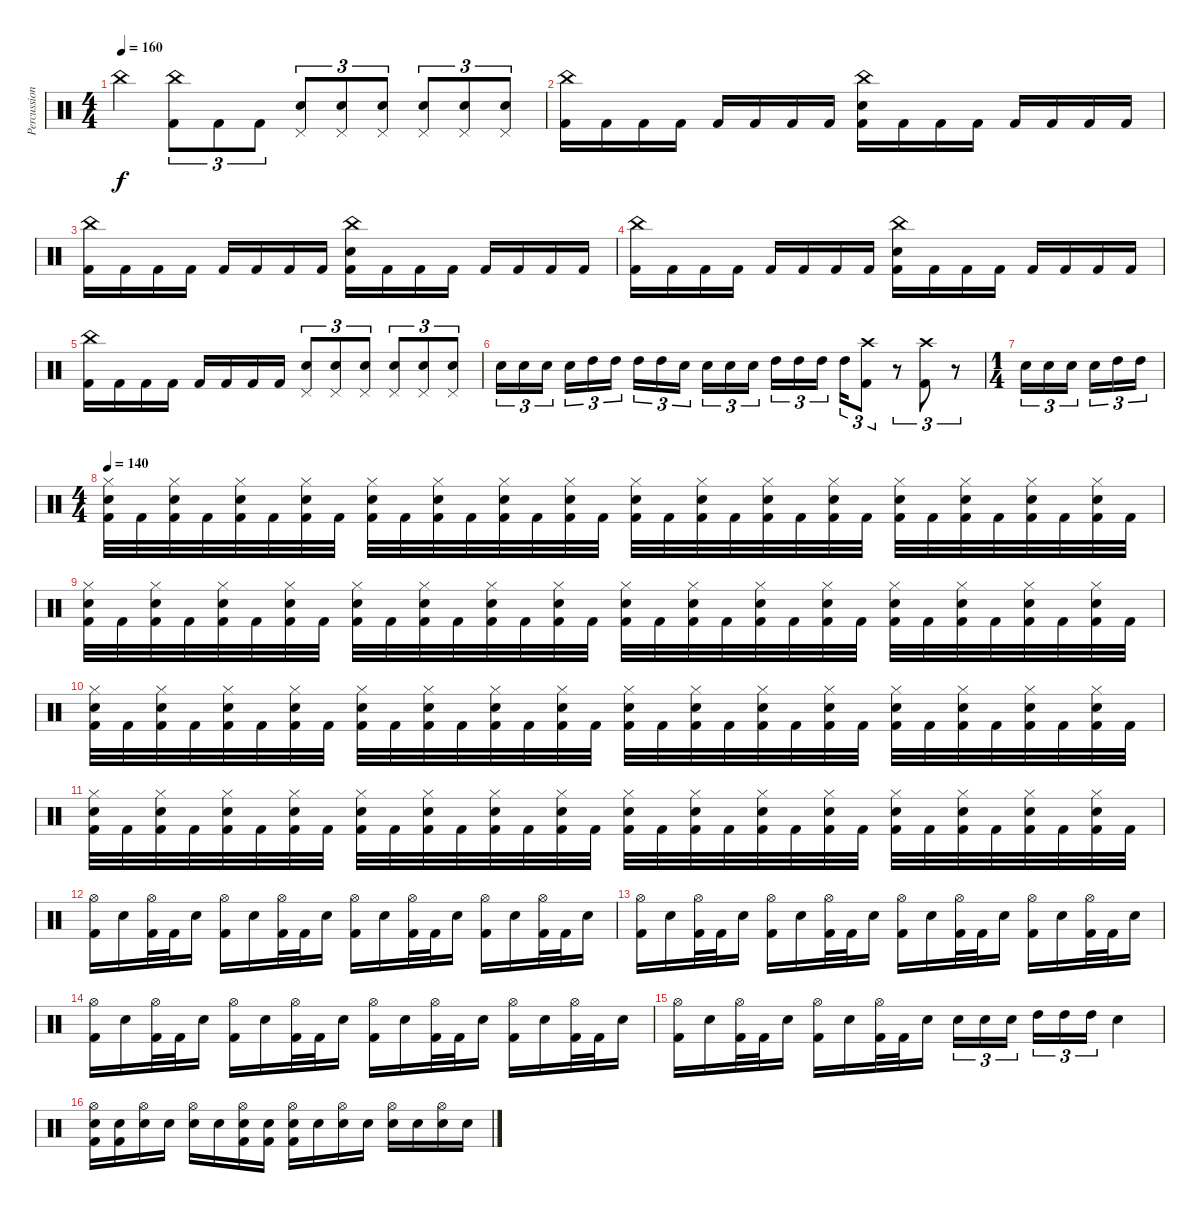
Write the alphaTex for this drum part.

\track ("Percussion" "Percussion") {instrument percussion}
\staff {score}
\articulation defaults
\ts (4 4)
\tempo 160
\clef neutral
\ks c "China (hit)".4{dy f}
("China (hit)" "Kick (hit) 2").8{tu (3 2)} "Kick (hit) 2".8{tu (3 2)} "Kick (hit) 2".8{tu (3 2)} ("Pedal Hi-Hat (hit)" "Snare (hit) 2").8{tu (3 2)} ("Pedal Hi-Hat (hit)" "Snare (hit) 2").8{tu (3 2)} ("Pedal Hi-Hat (hit)" "Snare (hit) 2").8{tu (3 2)} ("Pedal Hi-Hat (hit)" "Snare (hit) 2").8{tu (3 2)} ("Pedal Hi-Hat (hit)" "Snare (hit) 2").8{tu (3 2)} ("Pedal Hi-Hat (hit)" "Snare (hit) 2").8{tu (3 2)} |
("Kick (hit) 2" "China (hit)").16 "Kick (hit) 2".16 "Kick (hit) 2".16 "Kick (hit) 2".16 "Kick (hit) 2".16 "Kick (hit) 2".16 "Kick (hit) 2".16 "Kick (hit) 2".16 ("Kick (hit) 2" "Snare (hit) 2" "China (hit)").16 "Kick (hit) 2".16 "Kick (hit) 2".16 "Kick (hit) 2".16 "Kick (hit) 2".16 "Kick (hit) 2".16 "Kick (hit) 2".16 "Kick (hit) 2".16 |
("Kick (hit) 2" "China (hit)").16 "Kick (hit) 2".16 "Kick (hit) 2".16 "Kick (hit) 2".16 "Kick (hit) 2".16 "Kick (hit) 2".16 "Kick (hit) 2".16 "Kick (hit) 2".16 ("Kick (hit) 2" "Snare (hit) 2" "China (hit)").16 "Kick (hit) 2".16 "Kick (hit) 2".16 "Kick (hit) 2".16 "Kick (hit) 2".16 "Kick (hit) 2".16 "Kick (hit) 2".16 "Kick (hit) 2".16 |
("Kick (hit) 2" "China (hit)").16 "Kick (hit) 2".16 "Kick (hit) 2".16 "Kick (hit) 2".16 "Kick (hit) 2".16 "Kick (hit) 2".16 "Kick (hit) 2".16 "Kick (hit) 2".16 ("Kick (hit) 2" "Snare (hit) 2" "China (hit)").16 "Kick (hit) 2".16 "Kick (hit) 2".16 "Kick (hit) 2".16 "Kick (hit) 2".16 "Kick (hit) 2".16 "Kick (hit) 2".16 "Kick (hit) 2".16 |
("Kick (hit) 2" "China (hit)").16 "Kick (hit) 2".16 "Kick (hit) 2".16 "Kick (hit) 2".16 "Kick (hit) 2".16 "Kick (hit) 2".16 "Kick (hit) 2".16 "Kick (hit) 2".16 ("Pedal Hi-Hat (hit)" "Snare (hit) 2").8{tu (3 2)} ("Pedal Hi-Hat (hit)" "Snare (hit) 2").8{tu (3 2)} ("Pedal Hi-Hat (hit)" "Snare (hit) 2").8{tu (3 2)} ("Pedal Hi-Hat (hit)" "Snare (hit) 2").8{tu (3 2)} ("Pedal Hi-Hat (hit)" "Snare (hit) 2").8{tu (3 2)} ("Pedal Hi-Hat (hit)" "Snare (hit) 2").8{tu (3 2)} |
"Snare (hit) 2".16{tu (3 2)} "Snare (hit) 2".16{tu (3 2)} "Snare (hit) 2".16{tu (3 2) beam splitsecondary} "Snare (hit) 2".16{tu (3 2)} "High Tom (hit)".16{tu (3 2)} "High Tom (hit)".16{tu (3 2)} "High Tom (hit)".16{tu (3 2)} "High Tom (hit)".16{tu (3 2)} "Snare (hit) 2".16{tu (3 2) beam splitsecondary} "Snare (hit) 2".16{tu (3 2)} "Snare (hit) 2".16{tu (3 2)} "Snare (hit) 2".16{tu (3 2)} "High Tom (hit)".16{tu (3 2)} "High Tom (hit)".16{tu (3 2)} "High Tom (hit)".16{tu (3 2) beam splitsecondary} "High Tom (hit)".16{tu (3 2)} ("Crash high (hit)" "Kick (hit) 2").8{tu (3 2)} r.8{tu (3 2)} ("Crash high (hit)" "Kick (hit) 2").8{tu (3 2)} r.8{tu (3 2)} |
\ts (1 4)
"Snare (hit) 2".16{tu (3 2)} "Snare (hit) 2".16{tu (3 2)} "Snare (hit) 2".16{tu (3 2) beam splitsecondary} "Snare (hit) 2".16{tu (3 2)} "High Tom (hit)".16{tu (3 2)} "High Tom (hit)".16{tu (3 2)} |
\ts (4 4)
\tempo 140
("Hi-Hat (closed)" "Snare (hit) 2" "Kick (hit) 2").32 "Kick (hit) 2".32 ("Hi-Hat (closed)" "Snare (hit) 2" "Kick (hit) 2").32 "Kick (hit) 2".32 ("Hi-Hat (closed)" "Snare (hit) 2" "Kick (hit) 2").32 "Kick (hit) 2".32 ("Hi-Hat (closed)" "Snare (hit) 2" "Kick (hit) 2").32 "Kick (hit) 2".32 ("Hi-Hat (closed)" "Snare (hit) 2" "Kick (hit) 2").32 "Kick (hit) 2".32 ("Hi-Hat (closed)" "Snare (hit) 2" "Kick (hit) 2").32 "Kick (hit) 2".32 ("Hi-Hat (closed)" "Snare (hit) 2" "Kick (hit) 2").32 "Kick (hit) 2".32 ("Hi-Hat (closed)" "Snare (hit) 2" "Kick (hit) 2").32 "Kick (hit) 2".32 ("Hi-Hat (closed)" "Snare (hit) 2" "Kick (hit) 2").32 "Kick (hit) 2".32 ("Hi-Hat (closed)" "Snare (hit) 2" "Kick (hit) 2").32 "Kick (hit) 2".32 ("Hi-Hat (closed)" "Snare (hit) 2" "Kick (hit) 2").32 "Kick (hit) 2".32 ("Hi-Hat (closed)" "Snare (hit) 2" "Kick (hit) 2").32 "Kick (hit) 2".32 ("Hi-Hat (closed)" "Snare (hit) 2" "Kick (hit) 2").32 "Kick (hit) 2".32 ("Hi-Hat (closed)" "Snare (hit) 2" "Kick (hit) 2").32 "Kick (hit) 2".32 ("Hi-Hat (closed)" "Snare (hit) 2" "Kick (hit) 2").32 "Kick (hit) 2".32 ("Hi-Hat (closed)" "Snare (hit) 2" "Kick (hit) 2").32 "Kick (hit) 2".32 |
("Hi-Hat (closed)" "Snare (hit) 2" "Kick (hit) 2").32 "Kick (hit) 2".32 ("Hi-Hat (closed)" "Snare (hit) 2" "Kick (hit) 2").32 "Kick (hit) 2".32 ("Hi-Hat (closed)" "Snare (hit) 2" "Kick (hit) 2").32 "Kick (hit) 2".32 ("Hi-Hat (closed)" "Snare (hit) 2" "Kick (hit) 2").32 "Kick (hit) 2".32 ("Hi-Hat (closed)" "Snare (hit) 2" "Kick (hit) 2").32 "Kick (hit) 2".32 ("Hi-Hat (closed)" "Snare (hit) 2" "Kick (hit) 2").32 "Kick (hit) 2".32 ("Hi-Hat (closed)" "Snare (hit) 2" "Kick (hit) 2").32 "Kick (hit) 2".32 ("Hi-Hat (closed)" "Snare (hit) 2" "Kick (hit) 2").32 "Kick (hit) 2".32 ("Hi-Hat (closed)" "Snare (hit) 2" "Kick (hit) 2").32 "Kick (hit) 2".32 ("Hi-Hat (closed)" "Snare (hit) 2" "Kick (hit) 2").32 "Kick (hit) 2".32 ("Hi-Hat (closed)" "Snare (hit) 2" "Kick (hit) 2").32 "Kick (hit) 2".32 ("Hi-Hat (closed)" "Snare (hit) 2" "Kick (hit) 2").32 "Kick (hit) 2".32 ("Hi-Hat (closed)" "Snare (hit) 2" "Kick (hit) 2").32 "Kick (hit) 2".32 ("Hi-Hat (closed)" "Snare (hit) 2" "Kick (hit) 2").32 "Kick (hit) 2".32 ("Hi-Hat (closed)" "Snare (hit) 2" "Kick (hit) 2").32 "Kick (hit) 2".32 ("Hi-Hat (closed)" "Snare (hit) 2" "Kick (hit) 2").32 "Kick (hit) 2".32 |
("Hi-Hat (closed)" "Snare (hit) 2" "Kick (hit) 2").32 "Kick (hit) 2".32 ("Hi-Hat (closed)" "Snare (hit) 2" "Kick (hit) 2").32 "Kick (hit) 2".32 ("Hi-Hat (closed)" "Snare (hit) 2" "Kick (hit) 2").32 "Kick (hit) 2".32 ("Hi-Hat (closed)" "Snare (hit) 2" "Kick (hit) 2").32 "Kick (hit) 2".32 ("Hi-Hat (closed)" "Snare (hit) 2" "Kick (hit) 2").32 "Kick (hit) 2".32 ("Hi-Hat (closed)" "Snare (hit) 2" "Kick (hit) 2").32 "Kick (hit) 2".32 ("Hi-Hat (closed)" "Snare (hit) 2" "Kick (hit) 2").32 "Kick (hit) 2".32 ("Hi-Hat (closed)" "Snare (hit) 2" "Kick (hit) 2").32 "Kick (hit) 2".32 ("Hi-Hat (closed)" "Snare (hit) 2" "Kick (hit) 2").32 "Kick (hit) 2".32 ("Hi-Hat (closed)" "Snare (hit) 2" "Kick (hit) 2").32 "Kick (hit) 2".32 ("Hi-Hat (closed)" "Snare (hit) 2" "Kick (hit) 2").32 "Kick (hit) 2".32 ("Hi-Hat (closed)" "Snare (hit) 2" "Kick (hit) 2").32 "Kick (hit) 2".32 ("Hi-Hat (closed)" "Snare (hit) 2" "Kick (hit) 2").32 "Kick (hit) 2".32 ("Hi-Hat (closed)" "Snare (hit) 2" "Kick (hit) 2").32 "Kick (hit) 2".32 ("Hi-Hat (closed)" "Snare (hit) 2" "Kick (hit) 2").32 "Kick (hit) 2".32 ("Hi-Hat (closed)" "Snare (hit) 2" "Kick (hit) 2").32 "Kick (hit) 2".32 |
("Hi-Hat (closed)" "Snare (hit) 2" "Kick (hit) 2").32 "Kick (hit) 2".32 ("Hi-Hat (closed)" "Snare (hit) 2" "Kick (hit) 2").32 "Kick (hit) 2".32 ("Hi-Hat (closed)" "Snare (hit) 2" "Kick (hit) 2").32 "Kick (hit) 2".32 ("Hi-Hat (closed)" "Snare (hit) 2" "Kick (hit) 2").32 "Kick (hit) 2".32 ("Hi-Hat (closed)" "Snare (hit) 2" "Kick (hit) 2").32 "Kick (hit) 2".32 ("Hi-Hat (closed)" "Snare (hit) 2" "Kick (hit) 2").32 "Kick (hit) 2".32 ("Hi-Hat (closed)" "Snare (hit) 2" "Kick (hit) 2").32 "Kick (hit) 2".32 ("Hi-Hat (closed)" "Snare (hit) 2" "Kick (hit) 2").32 "Kick (hit) 2".32 ("Hi-Hat (closed)" "Snare (hit) 2" "Kick (hit) 2").32 "Kick (hit) 2".32 ("Hi-Hat (closed)" "Snare (hit) 2" "Kick (hit) 2").32 "Kick (hit) 2".32 ("Hi-Hat (closed)" "Snare (hit) 2" "Kick (hit) 2").32 "Kick (hit) 2".32 ("Hi-Hat (closed)" "Snare (hit) 2" "Kick (hit) 2").32 "Kick (hit) 2".32 ("Hi-Hat (closed)" "Snare (hit) 2" "Kick (hit) 2").32 "Kick (hit) 2".32 ("Hi-Hat (closed)" "Snare (hit) 2" "Kick (hit) 2").32 "Kick (hit) 2".32 ("Hi-Hat (closed)" "Snare (hit) 2" "Kick (hit) 2").32 "Kick (hit) 2".32 ("Hi-Hat (closed)" "Snare (hit) 2" "Kick (hit) 2").32 "Kick (hit) 2".32 |
("Kick (hit) 2" "Hi-Hat (open)").16 "Snare (hit) 2".16 ("Kick (hit) 2" "Hi-Hat (open)").32 "Kick (hit) 2".32 "Snare (hit) 2".16 ("Kick (hit) 2" "Hi-Hat (open)").16 "Snare (hit) 2".16 ("Kick (hit) 2" "Hi-Hat (open)").32 "Kick (hit) 2".32 "Snare (hit) 2".16 ("Kick (hit) 2" "Hi-Hat (open)").16 "Snare (hit) 2".16 ("Kick (hit) 2" "Hi-Hat (open)").32 "Kick (hit) 2".32 "Snare (hit) 2".16 ("Kick (hit) 2" "Hi-Hat (open)").16 "Snare (hit) 2".16 ("Kick (hit) 2" "Hi-Hat (open)").32 "Kick (hit) 2".32 "Snare (hit) 2".16 |
("Kick (hit) 2" "Hi-Hat (open)").16 "Snare (hit) 2".16 ("Kick (hit) 2" "Hi-Hat (open)").32 "Kick (hit) 2".32 "Snare (hit) 2".16 ("Kick (hit) 2" "Hi-Hat (open)").16 "Snare (hit) 2".16 ("Kick (hit) 2" "Hi-Hat (open)").32 "Kick (hit) 2".32 "Snare (hit) 2".16 ("Kick (hit) 2" "Hi-Hat (open)").16 "Snare (hit) 2".16 ("Kick (hit) 2" "Hi-Hat (open)").32 "Kick (hit) 2".32 "Snare (hit) 2".16 ("Kick (hit) 2" "Hi-Hat (open)").16 "Snare (hit) 2".16 ("Kick (hit) 2" "Hi-Hat (open)").32 "Kick (hit) 2".32 "Snare (hit) 2".16 |
("Kick (hit) 2" "Hi-Hat (open)").16 "Snare (hit) 2".16 ("Kick (hit) 2" "Hi-Hat (open)").32 "Kick (hit) 2".32 "Snare (hit) 2".16 ("Kick (hit) 2" "Hi-Hat (open)").16 "Snare (hit) 2".16 ("Kick (hit) 2" "Hi-Hat (open)").32 "Kick (hit) 2".32 "Snare (hit) 2".16 ("Kick (hit) 2" "Hi-Hat (open)").16 "Snare (hit) 2".16 ("Kick (hit) 2" "Hi-Hat (open)").32 "Kick (hit) 2".32 "Snare (hit) 2".16 ("Kick (hit) 2" "Hi-Hat (open)").16 "Snare (hit) 2".16 ("Kick (hit) 2" "Hi-Hat (open)").32 "Kick (hit) 2".32 "Snare (hit) 2".16 |
("Kick (hit) 2" "Hi-Hat (open)").16 "Snare (hit) 2".16 ("Kick (hit) 2" "Hi-Hat (open)").32 "Kick (hit) 2".32 "Snare (hit) 2".16 ("Kick (hit) 2" "Hi-Hat (open)").16 "Snare (hit) 2".16 ("Kick (hit) 2" "Hi-Hat (open)").32 "Kick (hit) 2".32 "Snare (hit) 2".16 "Snare (hit) 2".16{tu (3 2)} "Snare (hit) 2".16{tu (3 2)} "Snare (hit) 2".16{tu (3 2) beam splitsecondary} "High Tom (hit)".16{tu (3 2)} "High Tom (hit)".16{tu (3 2)} "High Tom (hit)".16{tu (3 2)} "Snare (hit) 2".4 |
("Hi-Hat (open)" "Snare (hit) 2" "Kick (hit) 2").16 ("Snare (hit) 2" "Kick (hit) 2").16 ("Hi-Hat (open)" "Snare (hit) 2").16 "Snare (hit) 2".16 ("Hi-Hat (open)" "Snare (hit) 2").16 "Snare (hit) 2".16 ("Hi-Hat (open)" "Snare (hit) 2" "Kick (hit) 2").16 ("Snare (hit) 2" "Kick (hit) 2").16 ("Hi-Hat (open)" "Snare (hit) 2" "Kick (hit) 2").16 "Snare (hit) 2".16 ("Hi-Hat (open)" "Snare (hit) 2").16 "Snare (hit) 2".16 ("Hi-Hat (open)" "Snare (hit) 2").16 "Snare (hit) 2".16 ("Hi-Hat (open)" "Snare (hit) 2").16 "Snare (hit) 2".16
